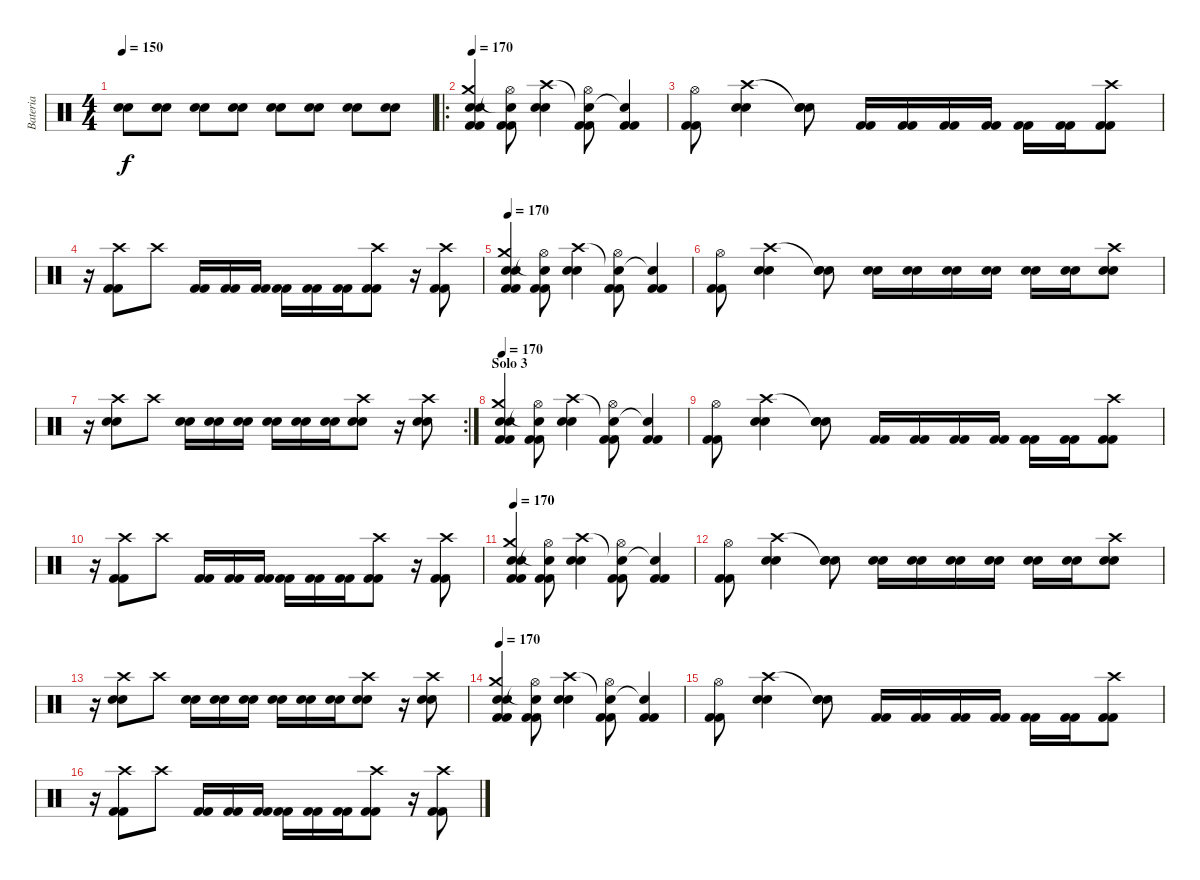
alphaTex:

\track ("Bateria" "Bateria") {instrument percussion}
\staff {score}
\articulation defaults
\ts (4 4)
\tempo 150
\clef neutral
\ks c
("Snare (hit) 2" "Snare (hit) 2").8{dy f} ("Snare (hit) 2" "Snare (hit) 2").8 ("Snare (hit) 2" "Snare (hit) 2").8 ("Snare (hit) 2" "Snare (hit) 2").8 ("Snare (hit) 2" "Snare (hit) 2").8 ("Snare (hit) 2" "Snare (hit) 2").8 ("Snare (hit) 2" "Snare (hit) 2").8 ("Snare (hit) 2" "Snare (hit) 2").8 |
\ro
\tempo 170
("Crash medium (hit)" "Snare (hit) 2" "Snare (hit) 2" "Kick (hit) 2" "Kick (hit) 2").4 ("Snare (hit)"{t} "Hi-Hat (open)" "Kick (hit) 2" "Kick (hit) 2").8 ("Crash high (hit)" "Snare (hit) 2" "Snare (hit) 2").4 ("Snare (hit)"{t} "Hi-Hat (open)" "Kick (hit) 2" "Kick (hit) 2").8 ("Snare (hit)"{t} "Kick (hit) 2" "Kick (hit) 2").4 |
("Hi-Hat (open)" "Kick (hit) 2" "Kick (hit) 2").8 ("Crash high (hit)" "Snare (hit) 2" "Snare (hit) 2").4 ("Snare (hit)"{t} "Electric Snare (hit)" "Electric Snare (hit)").8 ("Kick (hit) 2" "Kick (hit) 2").16 ("Kick (hit) 2" "Kick (hit) 2").16 ("Kick (hit) 2" "Kick (hit) 2").16 ("Kick (hit) 2" "Kick (hit) 2").16 ("Kick (hit) 2" "Kick (hit) 2").16 ("Kick (hit) 2" "Kick (hit) 2").16 ("Crash high (hit)" "Kick (hit) 2" "Kick (hit) 2").8 |
r.16 ("Crash high (hit)" "Kick (hit) 2" "Kick (hit) 2").8 "Crash high (hit)".8 ("Kick (hit) 2" "Kick (hit) 2").16 ("Kick (hit) 2" "Kick (hit) 2").16 ("Kick (hit) 2" "Kick (hit) 2").16 ("Kick (hit) 2" "Kick (hit) 2").16 ("Kick (hit) 2" "Kick (hit) 2").16 ("Kick (hit) 2" "Kick (hit) 2").16 ("Crash high (hit)" "Kick (hit) 2" "Kick (hit) 2").8 r.16 ("Crash high (hit)" "Kick (hit) 2" "Kick (hit) 2").8 |
\tempo 170
("Crash medium (hit)" "Snare (hit) 2" "Snare (hit) 2" "Kick (hit) 2" "Kick (hit) 2").4 ("Snare (hit)"{t} "Hi-Hat (open)" "Kick (hit) 2" "Kick (hit) 2").8 ("Crash high (hit)" "Snare (hit) 2" "Snare (hit) 2").4 ("Snare (hit)"{t} "Hi-Hat (open)" "Kick (hit) 2" "Kick (hit) 2").8 ("Snare (hit)"{t} "Kick (hit) 2" "Kick (hit) 2").4 |
("Hi-Hat (open)" "Kick (hit) 2" "Kick (hit) 2").8 ("Crash high (hit)" "Snare (hit) 2" "Snare (hit) 2").4 ("Snare (hit)"{t} "Electric Snare (hit)" "Electric Snare (hit)").8 ("Snare (hit) 2" "Snare (hit) 2").16 ("Snare (hit) 2" "Snare (hit) 2").16 ("Snare (hit) 2" "Snare (hit) 2").16 ("Snare (hit) 2" "Snare (hit) 2").16 ("Snare (hit) 2" "Snare (hit) 2").16 ("Snare (hit) 2" "Snare (hit) 2").16 ("Crash high (hit)" "Snare (hit) 2" "Snare (hit) 2").8 |
\rc 2
r.16 ("Crash high (hit)" "Snare (hit) 2" "Snare (hit) 2").8 "Crash high (hit)".8 ("Snare (hit) 2" "Snare (hit) 2").16 ("Snare (hit) 2" "Snare (hit) 2").16 ("Snare (hit) 2" "Snare (hit) 2").16 ("Snare (hit) 2" "Snare (hit) 2").16 ("Snare (hit) 2" "Snare (hit) 2").16 ("Snare (hit) 2" "Snare (hit) 2").16 ("Crash high (hit)" "Snare (hit) 2" "Snare (hit) 2").8 r.16 ("Crash high (hit)" "Snare (hit) 2" "Snare (hit) 2").8 |
\section ("" "Solo 3")
\tempo 170
("Crash medium (hit)" "Snare (hit) 2" "Snare (hit) 2" "Kick (hit) 2" "Kick (hit) 2").4 ("Snare (hit)"{t} "Hi-Hat (open)" "Kick (hit) 2" "Kick (hit) 2").8 ("Crash high (hit)" "Snare (hit) 2" "Snare (hit) 2").4 ("Snare (hit)"{t} "Hi-Hat (open)" "Kick (hit) 2" "Kick (hit) 2").8 ("Snare (hit)"{t} "Kick (hit) 2" "Kick (hit) 2").4 |
("Hi-Hat (open)" "Kick (hit) 2" "Kick (hit) 2").8 ("Crash high (hit)" "Snare (hit) 2" "Snare (hit) 2").4 ("Snare (hit)"{t} "Electric Snare (hit)" "Electric Snare (hit)").8 ("Kick (hit) 2" "Kick (hit) 2").16 ("Kick (hit) 2" "Kick (hit) 2").16 ("Kick (hit) 2" "Kick (hit) 2").16 ("Kick (hit) 2" "Kick (hit) 2").16 ("Kick (hit) 2" "Kick (hit) 2").16 ("Kick (hit) 2" "Kick (hit) 2").16 ("Crash high (hit)" "Kick (hit) 2" "Kick (hit) 2").8 |
r.16 ("Crash high (hit)" "Kick (hit) 2" "Kick (hit) 2").8 "Crash high (hit)".8 ("Kick (hit) 2" "Kick (hit) 2").16 ("Kick (hit) 2" "Kick (hit) 2").16 ("Kick (hit) 2" "Kick (hit) 2").16 ("Kick (hit) 2" "Kick (hit) 2").16 ("Kick (hit) 2" "Kick (hit) 2").16 ("Kick (hit) 2" "Kick (hit) 2").16 ("Crash high (hit)" "Kick (hit) 2" "Kick (hit) 2").8 r.16 ("Crash high (hit)" "Kick (hit) 2" "Kick (hit) 2").8 |
\tempo 170
("Crash medium (hit)" "Snare (hit) 2" "Snare (hit) 2" "Kick (hit) 2" "Kick (hit) 2").4 ("Snare (hit)"{t} "Hi-Hat (open)" "Kick (hit) 2" "Kick (hit) 2").8 ("Crash high (hit)" "Snare (hit) 2" "Snare (hit) 2").4 ("Snare (hit)"{t} "Hi-Hat (open)" "Kick (hit) 2" "Kick (hit) 2").8 ("Snare (hit)"{t} "Kick (hit) 2" "Kick (hit) 2").4 |
("Hi-Hat (open)" "Kick (hit) 2" "Kick (hit) 2").8 ("Crash high (hit)" "Snare (hit) 2" "Snare (hit) 2").4 ("Snare (hit)"{t} "Electric Snare (hit)" "Electric Snare (hit)").8 ("Snare (hit) 2" "Snare (hit) 2").16 ("Snare (hit) 2" "Snare (hit) 2").16 ("Snare (hit) 2" "Snare (hit) 2").16 ("Snare (hit) 2" "Snare (hit) 2").16 ("Snare (hit) 2" "Snare (hit) 2").16 ("Snare (hit) 2" "Snare (hit) 2").16 ("Crash high (hit)" "Snare (hit) 2" "Snare (hit) 2").8 |
r.16 ("Crash high (hit)" "Snare (hit) 2" "Snare (hit) 2").8 "Crash high (hit)".8 ("Snare (hit) 2" "Snare (hit) 2").16 ("Snare (hit) 2" "Snare (hit) 2").16 ("Snare (hit) 2" "Snare (hit) 2").16 ("Snare (hit) 2" "Snare (hit) 2").16 ("Snare (hit) 2" "Snare (hit) 2").16 ("Snare (hit) 2" "Snare (hit) 2").16 ("Crash high (hit)" "Snare (hit) 2" "Snare (hit) 2").8 r.16 ("Crash high (hit)" "Snare (hit) 2" "Snare (hit) 2").8 |
\tempo 170
("Crash medium (hit)" "Snare (hit) 2" "Snare (hit) 2" "Kick (hit) 2" "Kick (hit) 2").4 ("Snare (hit)"{t} "Hi-Hat (open)" "Kick (hit) 2" "Kick (hit) 2").8 ("Crash high (hit)" "Snare (hit) 2" "Snare (hit) 2").4 ("Snare (hit)"{t} "Hi-Hat (open)" "Kick (hit) 2" "Kick (hit) 2").8 ("Snare (hit)"{t} "Kick (hit) 2" "Kick (hit) 2").4 |
("Hi-Hat (open)" "Kick (hit) 2" "Kick (hit) 2").8 ("Crash high (hit)" "Snare (hit) 2" "Snare (hit) 2").4 ("Snare (hit)"{t} "Electric Snare (hit)" "Electric Snare (hit)").8 ("Kick (hit) 2" "Kick (hit) 2").16 ("Kick (hit) 2" "Kick (hit) 2").16 ("Kick (hit) 2" "Kick (hit) 2").16 ("Kick (hit) 2" "Kick (hit) 2").16 ("Kick (hit) 2" "Kick (hit) 2").16 ("Kick (hit) 2" "Kick (hit) 2").16 ("Crash high (hit)" "Kick (hit) 2" "Kick (hit) 2").8 |
r.16 ("Crash high (hit)" "Kick (hit) 2" "Kick (hit) 2").8 "Crash high (hit)".8 ("Kick (hit) 2" "Kick (hit) 2").16 ("Kick (hit) 2" "Kick (hit) 2").16 ("Kick (hit) 2" "Kick (hit) 2").16 ("Kick (hit) 2" "Kick (hit) 2").16 ("Kick (hit) 2" "Kick (hit) 2").16 ("Kick (hit) 2" "Kick (hit) 2").16 ("Crash high (hit)" "Kick (hit) 2" "Kick (hit) 2").8 r.16 ("Crash high (hit)" "Kick (hit) 2" "Kick (hit) 2").8
